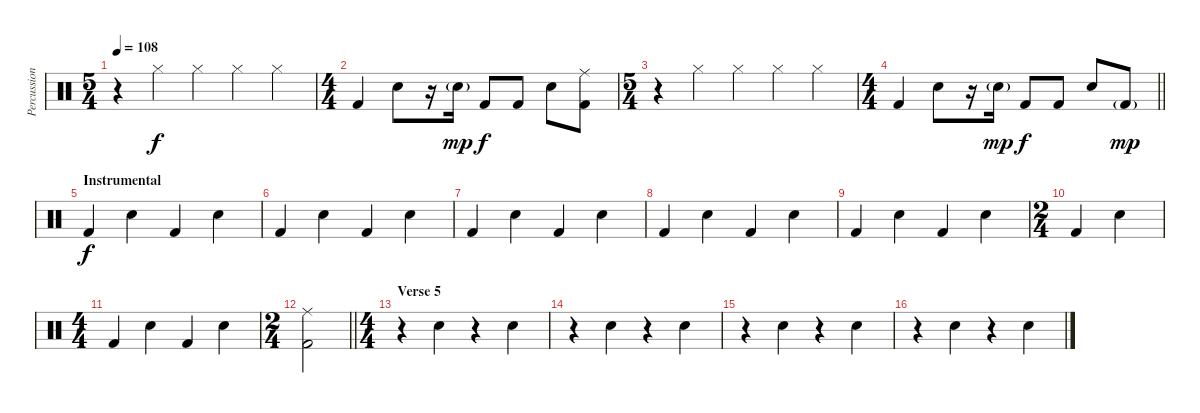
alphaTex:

\track ("Percussion" "Percussion") {instrument percussion}
\staff {score}
\articulation defaults
\ts (5 4)
\tempo 108
\clef neutral
\ks c
r.4{dy f} "Hi-Hat (closed)".4 "Hi-Hat (closed)".4 "Hi-Hat (closed)".4 "Hi-Hat (closed)".4 |
\ts (4 4)
"Kick (hit) 2".4 "Snare (hit) 2".8 r.16 "Snare (hit) 2"{g}.16{dy mp} "Kick (hit) 2".8{dy f} "Kick (hit) 2".8 "Snare (hit) 2".8 ("Ride (middle)" "Kick (hit) 2").8 |
\ts (5 4)
r.4 "Hi-Hat (closed)".4 "Hi-Hat (closed)".4 "Hi-Hat (closed)".4 "Hi-Hat (closed)".4 |
\ts (4 4)
\barLineRight lightlight "Kick (hit) 2".4 "Snare (hit) 2".8
r.16 "Snare (hit) 2"{g}.16{dy mp} "Kick (hit) 2".8{dy f} "Kick (hit) 2".8 "Snare (hit) 2".8 "Kick (hit) 2"{g}.8{dy mp} |
\section ("" "Instrumental")
"Kick (hit) 2".4{dy f} "Snare (hit) 2".4 "Kick (hit) 2".4 "Snare (hit) 2".4 |
"Kick (hit) 2".4 "Snare (hit) 2".4 "Kick (hit) 2".4 "Snare (hit) 2".4 |
"Kick (hit) 2".4 "Snare (hit) 2".4 "Kick (hit) 2".4 "Snare (hit) 2".4 |
"Kick (hit) 2".4 "Snare (hit) 2".4 "Kick (hit) 2".4 "Snare (hit) 2".4 |
"Kick (hit) 2".4 "Snare (hit) 2".4 "Kick (hit) 2".4 "Snare (hit) 2".4 |
\ts (2 4)
"Kick (hit) 2".4 "Snare (hit) 2".4 |
\ts (4 4)
"Kick (hit) 2".4 "Snare (hit) 2".4 "Kick (hit) 2".4 "Snare (hit) 2".4 |
\ts (2 4)
\barLineRight lightlight
("Ride (middle)" "Kick (hit) 2").2 |
\ts (4 4)
\section ("" "Verse 5")
r.4 "Snare (hit) 2".4 r.4 "Snare (hit) 2".4 |
r.4 "Snare (hit) 2".4 r.4 "Snare (hit) 2".4 |
r.4 "Snare (hit) 2".4 r.4 "Snare (hit) 2".4 |
r.4 "Snare (hit) 2".4 r.4 "Snare (hit) 2".4
